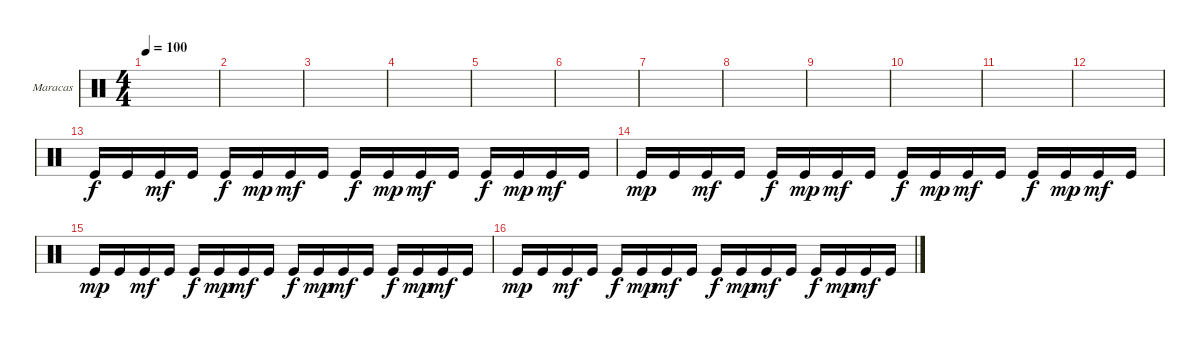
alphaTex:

\defaultSystemsLayout 4
\bracketExtendMode groupsimilarinstruments
\firstSystemTrackNameOrientation horizontal
\otherSystemsTrackNameOrientation horizontal
\track ("Maracas" "Maracas") {instrument percussion}
\staff {score}
\articulation defaults
\ts (4 4)
\tempo 100
\clef neutral
\scale
0.474178
\ks c
|
\scale
0.262911 |
\scale
0.262911 |
\scale
0.333333 |
\scale
0.333333 |
\scale
0.333333 |
\scale
0.333333 |
\scale
0.333333 |
\scale
0.333333 |
\scale
0.333333 |
\scale
0.333333 |
\scale
0.333333 |
"Kick (hit)".16 "Kick (hit)".16 "Kick (hit)".16{dy mf} "Kick (hit)".16 "Kick (hit)".16{dy f} "Kick (hit)".16{dy mp} "Kick (hit)".16{dy mf} "Kick (hit)".16 "Kick (hit)".16{dy f} "Kick (hit)".16{dy mp} "Kick (hit)".16{dy mf} "Kick (hit)".16 "Kick (hit)".16{dy f} "Kick (hit)".16{dy mp} "Kick (hit)".16{dy mf} "Kick (hit)".16 |
"Kick (hit)".16{dy mp} "Kick (hit)".16 "Kick (hit)".16{dy mf} "Kick (hit)".16 "Kick (hit)".16{dy f} "Kick (hit)".16{dy mp} "Kick (hit)".16{dy mf} "Kick (hit)".16 "Kick (hit)".16{dy f} "Kick (hit)".16{dy mp} "Kick (hit)".16{dy mf} "Kick (hit)".16 "Kick (hit)".16{dy f} "Kick (hit)".16{dy mp} "Kick (hit)".16{dy mf} "Kick (hit)".16 |
"Kick (hit)".16{dy mp} "Kick (hit)".16 "Kick (hit)".16{dy mf} "Kick (hit)".16 "Kick (hit)".16{dy f} "Kick (hit)".16{dy mp} "Kick (hit)".16{dy mf} "Kick (hit)".16 "Kick (hit)".16{dy f} "Kick (hit)".16{dy mp} "Kick (hit)".16{dy mf} "Kick (hit)".16 "Kick (hit)".16{dy f} "Kick (hit)".16{dy mp} "Kick (hit)".16{dy mf} "Kick (hit)".16 |
"Kick (hit)".16{dy mp} "Kick (hit)".16 "Kick (hit)".16{dy mf} "Kick (hit)".16 "Kick (hit)".16{dy f} "Kick (hit)".16{dy mp} "Kick (hit)".16{dy mf} "Kick (hit)".16 "Kick (hit)".16{dy f} "Kick (hit)".16{dy mp} "Kick (hit)".16{dy mf} "Kick (hit)".16 "Kick (hit)".16{dy f} "Kick (hit)".16{dy mp} "Kick (hit)".16{dy mf} "Kick (hit)".16
